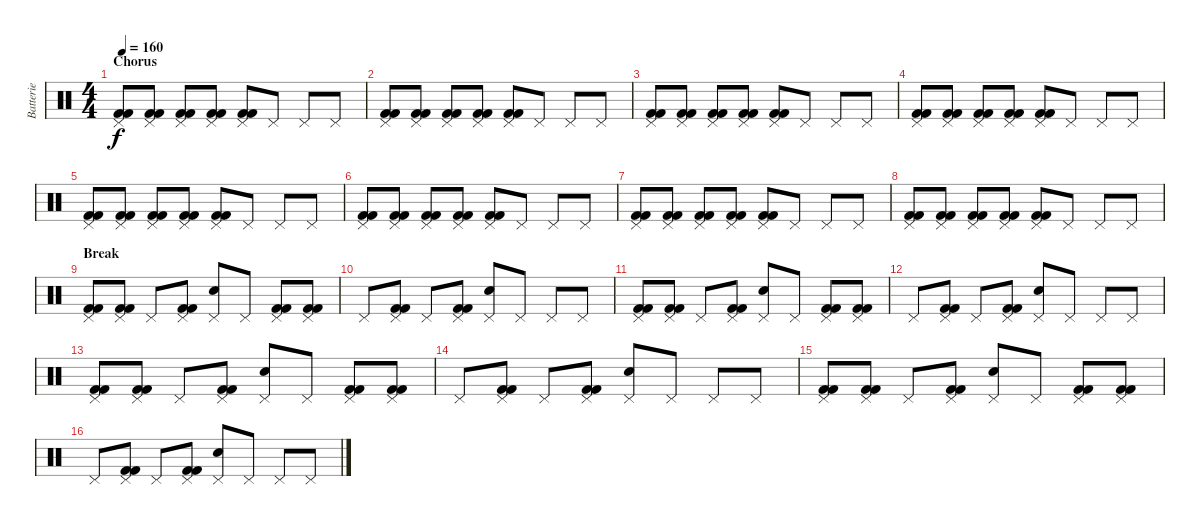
\track ("Batterie" "Batterie") {instrument percussion}
\staff {score}
\articulation defaults
\ts (4 4)
\section ("" "Chorus")
\tempo 160
\clef neutral
\ks c
("Pedal Hi-Hat (hit)" "Kick (hit) 2" "Kick (hit) 2").8{dy f} ("Pedal Hi-Hat (hit)" "Kick (hit) 2" "Kick (hit) 2").8 ("Pedal Hi-Hat (hit)" "Kick (hit) 2" "Kick (hit) 2").8 ("Pedal Hi-Hat (hit)" "Kick (hit) 2" "Kick (hit) 2").8 ("Pedal Hi-Hat (hit)" "Kick (hit) 2" "Kick (hit) 2").8 "Pedal Hi-Hat (hit)".8 "Pedal Hi-Hat (hit)".8 "Pedal Hi-Hat (hit)".8 |
("Pedal Hi-Hat (hit)" "Kick (hit) 2" "Kick (hit) 2").8 ("Pedal Hi-Hat (hit)" "Kick (hit) 2" "Kick (hit) 2").8 ("Pedal Hi-Hat (hit)" "Kick (hit) 2" "Kick (hit) 2").8 ("Pedal Hi-Hat (hit)" "Kick (hit) 2" "Kick (hit) 2").8 ("Pedal Hi-Hat (hit)" "Kick (hit) 2" "Kick (hit) 2").8 "Pedal Hi-Hat (hit)".8 "Pedal Hi-Hat (hit)".8 "Pedal Hi-Hat (hit)".8 |
("Pedal Hi-Hat (hit)" "Kick (hit) 2" "Kick (hit) 2").8 ("Pedal Hi-Hat (hit)" "Kick (hit) 2" "Kick (hit) 2").8 ("Pedal Hi-Hat (hit)" "Kick (hit) 2" "Kick (hit) 2").8 ("Pedal Hi-Hat (hit)" "Kick (hit) 2" "Kick (hit) 2").8 ("Pedal Hi-Hat (hit)" "Kick (hit) 2" "Kick (hit) 2").8 "Pedal Hi-Hat (hit)".8 "Pedal Hi-Hat (hit)".8 "Pedal Hi-Hat (hit)".8 |
("Pedal Hi-Hat (hit)" "Kick (hit) 2" "Kick (hit) 2").8 ("Pedal Hi-Hat (hit)" "Kick (hit) 2" "Kick (hit) 2").8 ("Pedal Hi-Hat (hit)" "Kick (hit) 2" "Kick (hit) 2").8 ("Pedal Hi-Hat (hit)" "Kick (hit) 2" "Kick (hit) 2").8 ("Pedal Hi-Hat (hit)" "Kick (hit) 2" "Kick (hit) 2").8 "Pedal Hi-Hat (hit)".8 "Pedal Hi-Hat (hit)".8 "Pedal Hi-Hat (hit)".8 |
("Pedal Hi-Hat (hit)" "Kick (hit) 2" "Kick (hit) 2").8 ("Pedal Hi-Hat (hit)" "Kick (hit) 2" "Kick (hit) 2").8 ("Pedal Hi-Hat (hit)" "Kick (hit) 2" "Kick (hit) 2").8 ("Pedal Hi-Hat (hit)" "Kick (hit) 2" "Kick (hit) 2").8 ("Pedal Hi-Hat (hit)" "Kick (hit) 2" "Kick (hit) 2").8 "Pedal Hi-Hat (hit)".8 "Pedal Hi-Hat (hit)".8 "Pedal Hi-Hat (hit)".8 |
("Pedal Hi-Hat (hit)" "Kick (hit) 2" "Kick (hit) 2").8 ("Pedal Hi-Hat (hit)" "Kick (hit) 2" "Kick (hit) 2").8 ("Pedal Hi-Hat (hit)" "Kick (hit) 2" "Kick (hit) 2").8 ("Pedal Hi-Hat (hit)" "Kick (hit) 2" "Kick (hit) 2").8 ("Pedal Hi-Hat (hit)" "Kick (hit) 2" "Kick (hit) 2").8 "Pedal Hi-Hat (hit)".8 "Pedal Hi-Hat (hit)".8 "Pedal Hi-Hat (hit)".8 |
("Pedal Hi-Hat (hit)" "Kick (hit) 2" "Kick (hit) 2").8 ("Pedal Hi-Hat (hit)" "Kick (hit) 2" "Kick (hit) 2").8 ("Pedal Hi-Hat (hit)" "Kick (hit) 2" "Kick (hit) 2").8 ("Pedal Hi-Hat (hit)" "Kick (hit) 2" "Kick (hit) 2").8 ("Pedal Hi-Hat (hit)" "Kick (hit) 2" "Kick (hit) 2").8 "Pedal Hi-Hat (hit)".8 "Pedal Hi-Hat (hit)".8 "Pedal Hi-Hat (hit)".8 |
("Pedal Hi-Hat (hit)" "Kick (hit) 2" "Kick (hit) 2").8 ("Pedal Hi-Hat (hit)" "Kick (hit) 2" "Kick (hit) 2").8 ("Pedal Hi-Hat (hit)" "Kick (hit) 2" "Kick (hit) 2").8 ("Pedal Hi-Hat (hit)" "Kick (hit) 2" "Kick (hit) 2").8 ("Pedal Hi-Hat (hit)" "Kick (hit) 2" "Kick (hit) 2").8 "Pedal Hi-Hat (hit)".8 "Pedal Hi-Hat (hit)".8 "Pedal Hi-Hat (hit)".8 |
\section ("" "Break")
("Pedal Hi-Hat (hit)" "Kick (hit) 2" "Kick (hit) 2").8 ("Pedal Hi-Hat (hit)" "Kick (hit) 2" "Kick (hit) 2").8 "Pedal Hi-Hat (hit)".8 ("Pedal Hi-Hat (hit)" "Kick (hit) 2" "Kick (hit) 2").8 ("Pedal Hi-Hat (hit)" "Electric Snare (hit)").8 "Pedal Hi-Hat (hit)".8 ("Pedal Hi-Hat (hit)" "Kick (hit) 2" "Kick (hit) 2").8 ("Pedal Hi-Hat (hit)" "Kick (hit) 2" "Kick (hit) 2").8 |
"Pedal Hi-Hat (hit)".8 ("Pedal Hi-Hat (hit)" "Kick (hit) 2" "Kick (hit) 2").8 "Pedal Hi-Hat (hit)".8 ("Pedal Hi-Hat (hit)" "Kick (hit) 2" "Kick (hit) 2").8 ("Pedal Hi-Hat (hit)" "Electric Snare (hit)").8 "Pedal Hi-Hat (hit)".8 "Pedal Hi-Hat (hit)".8 "Pedal Hi-Hat (hit)".8 |
("Pedal Hi-Hat (hit)" "Kick (hit) 2" "Kick (hit) 2").8 ("Pedal Hi-Hat (hit)" "Kick (hit) 2" "Kick (hit) 2").8 "Pedal Hi-Hat (hit)".8 ("Pedal Hi-Hat (hit)" "Kick (hit) 2" "Kick (hit) 2").8 ("Pedal Hi-Hat (hit)" "Electric Snare (hit)").8 "Pedal Hi-Hat (hit)".8 ("Pedal Hi-Hat (hit)" "Kick (hit) 2" "Kick (hit) 2").8 ("Pedal Hi-Hat (hit)" "Kick (hit) 2" "Kick (hit) 2").8 |
"Pedal Hi-Hat (hit)".8 ("Pedal Hi-Hat (hit)" "Kick (hit) 2" "Kick (hit) 2").8 "Pedal Hi-Hat (hit)".8 ("Pedal Hi-Hat (hit)" "Kick (hit) 2" "Kick (hit) 2").8 ("Pedal Hi-Hat (hit)" "Electric Snare (hit)").8 "Pedal Hi-Hat (hit)".8 "Pedal Hi-Hat (hit)".8 "Pedal Hi-Hat (hit)".8 |
("Pedal Hi-Hat (hit)" "Kick (hit) 2" "Kick (hit) 2").8 ("Pedal Hi-Hat (hit)" "Kick (hit) 2" "Kick (hit) 2").8 "Pedal Hi-Hat (hit)".8 ("Pedal Hi-Hat (hit)" "Kick (hit) 2" "Kick (hit) 2").8 ("Pedal Hi-Hat (hit)" "Electric Snare (hit)").8 "Pedal Hi-Hat (hit)".8 ("Pedal Hi-Hat (hit)" "Kick (hit) 2" "Kick (hit) 2").8 ("Pedal Hi-Hat (hit)" "Kick (hit) 2" "Kick (hit) 2").8 |
"Pedal Hi-Hat (hit)".8 ("Pedal Hi-Hat (hit)" "Kick (hit) 2" "Kick (hit) 2").8 "Pedal Hi-Hat (hit)".8 ("Pedal Hi-Hat (hit)" "Kick (hit) 2" "Kick (hit) 2").8 ("Pedal Hi-Hat (hit)" "Electric Snare (hit)").8 "Pedal Hi-Hat (hit)".8 "Pedal Hi-Hat (hit)".8 "Pedal Hi-Hat (hit)".8 |
("Pedal Hi-Hat (hit)" "Kick (hit) 2" "Kick (hit) 2").8 ("Pedal Hi-Hat (hit)" "Kick (hit) 2" "Kick (hit) 2").8 "Pedal Hi-Hat (hit)".8 ("Pedal Hi-Hat (hit)" "Kick (hit) 2" "Kick (hit) 2").8 ("Pedal Hi-Hat (hit)" "Electric Snare (hit)").8 "Pedal Hi-Hat (hit)".8 ("Pedal Hi-Hat (hit)" "Kick (hit) 2" "Kick (hit) 2").8 ("Pedal Hi-Hat (hit)" "Kick (hit) 2" "Kick (hit) 2").8 |
"Pedal Hi-Hat (hit)".8 ("Pedal Hi-Hat (hit)" "Kick (hit) 2" "Kick (hit) 2").8 "Pedal Hi-Hat (hit)".8 ("Pedal Hi-Hat (hit)" "Kick (hit) 2" "Kick (hit) 2").8 ("Pedal Hi-Hat (hit)" "Electric Snare (hit)").8 "Pedal Hi-Hat (hit)".8 "Pedal Hi-Hat (hit)".8 "Pedal Hi-Hat (hit)".8
